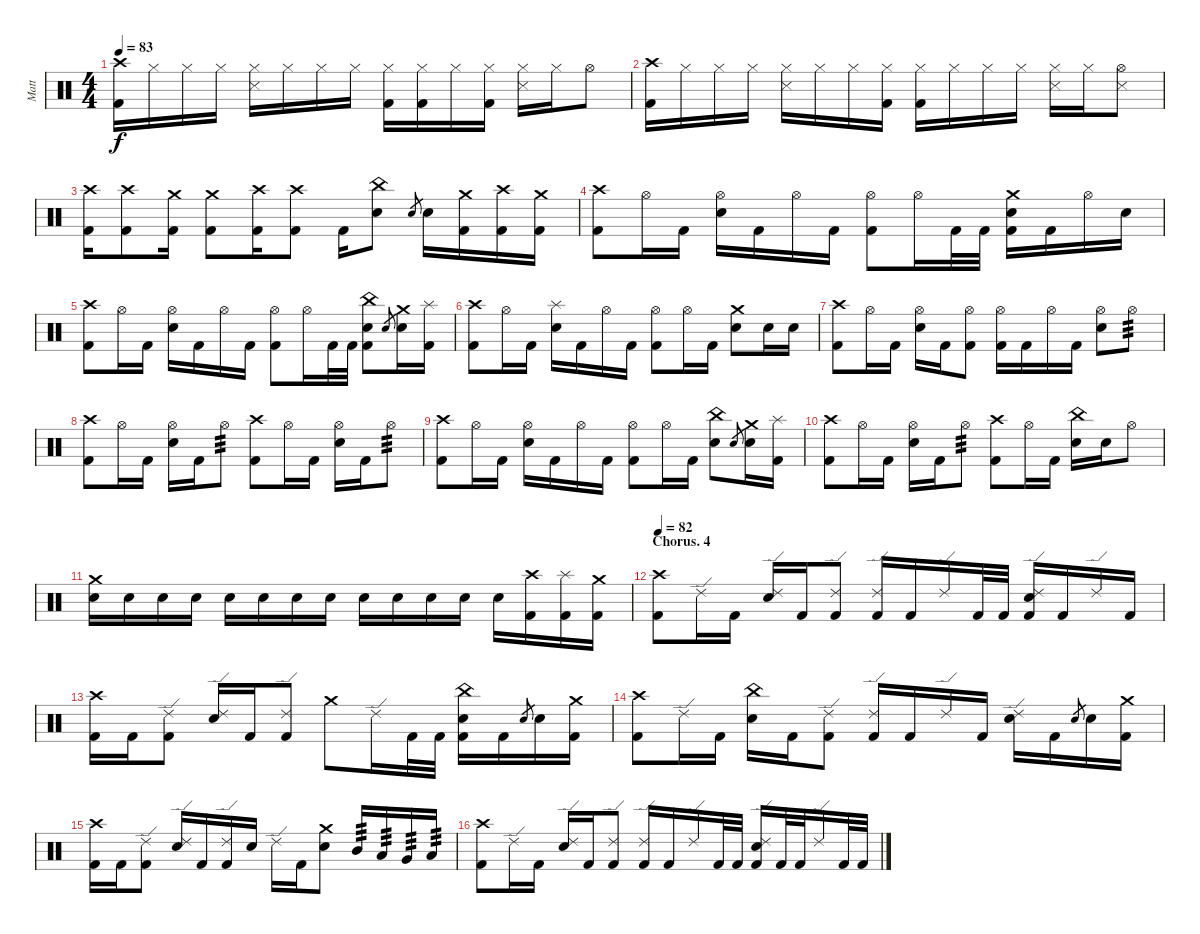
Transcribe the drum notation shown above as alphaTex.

\track ("Matt" "Matt") {instrument percussion}
\staff {score}
\articulation defaults
\ts (4 4)
\tempo 83
\clef neutral
\ks c
("Crash high (hit)" "Kick (hit) 2").16{dy f} "Hi-Hat (closed)".16 "Hi-Hat (closed)".16 "Hi-Hat (closed)".16 ("Hi-Hat (closed)" "Snare (side stick) 3").16 "Hi-Hat (closed)".16 "Hi-Hat (closed)".16 "Hi-Hat (closed)".16 ("Hi-Hat (closed)" "Kick (hit) 2").16 ("Hi-Hat (closed)" "Kick (hit) 2").16 "Hi-Hat (closed)".16 ("Hi-Hat (closed)" "Kick (hit) 2").16 ("Hi-Hat (closed)" "Snare (side stick) 3").16 "Hi-Hat (closed)".16 "Hi-Hat (open)".8 |
("Crash high (hit)" "Kick (hit) 2").16 "Hi-Hat (closed)".16 "Hi-Hat (closed)".16 "Hi-Hat (closed)".16 ("Hi-Hat (closed)" "Snare (side stick) 3").16 "Hi-Hat (closed)".16 "Hi-Hat (closed)".16 ("Hi-Hat (closed)" "Kick (hit) 2").16 ("Hi-Hat (closed)" "Kick (hit) 2").16 "Hi-Hat (closed)".16 "Hi-Hat (closed)".16 "Hi-Hat (closed)".16 ("Hi-Hat (closed)" "Snare (side stick) 3").16 "Hi-Hat (closed)".16 ("Hi-Hat (open)" "Snare (side stick) 3").8 |
("Crash high (hit)" "Kick (hit) 2").16 ("Crash high (hit)" "Kick (hit) 2").8 ("Crash medium (hit)" "Kick (hit) 2").16 ("Crash medium (hit)" "Kick (hit) 2").8 ("Crash high (hit)" "Kick (hit) 2").16 ("Crash high (hit)" "Kick (hit) 2").8 "Kick (hit) 2".16 ("China (hit)" "Electric Snare (hit)").8 "Electric Snare (hit)".8{gr} "Electric Snare (hit)".16 ("Crash medium (hit)" "Kick (hit) 2").16 ("Crash high (hit)" "Kick (hit) 2").16 ("Crash medium (hit)" "Kick (hit) 2").16 |
("Crash high (hit)" "Kick (hit) 2").8 "Hi-Hat (open)".16 "Kick (hit) 2".16 ("Hi-Hat (open)" "Electric Snare (hit)").16 "Kick (hit) 2".16 "Hi-Hat (open)".16 "Kick (hit) 2".16 ("Hi-Hat (open)" "Kick (hit) 2").8 "Hi-Hat (open)".16 "Kick (hit) 2".32 "Kick (hit) 2".32 ("Crash medium (hit)" "Electric Snare (hit)" "Kick (hit) 2").16 "Kick (hit) 2".16 "Hi-Hat (open)".16 "Electric Snare (hit)".16 |
("Crash high (hit)" "Kick (hit) 2").8 "Hi-Hat (open)".16 "Kick (hit) 2".16 ("Hi-Hat (open)" "Electric Snare (hit)").16 "Kick (hit) 2".16 "Hi-Hat (open)".16 "Kick (hit) 2".16 ("Hi-Hat (open)" "Kick (hit) 2").8 "Hi-Hat (open)".16 "Kick (hit) 2".32 "Kick (hit) 2".32 ("China (hit)" "Electric Snare (hit)" "Kick (hit) 2").8 "Electric Snare (hit)".8{gr} ("Crash medium (hit)" "Electric Snare (hit)").16 ("Splash (hit)" "Kick (hit) 2").16 |
("Crash high (hit)" "Kick (hit) 2").8 "Hi-Hat (open)".16 "Kick (hit) 2".16 ("Splash (hit)" "Electric Snare (hit)").16 "Kick (hit) 2".16 "Hi-Hat (open)".16 "Kick (hit) 2".16 ("Hi-Hat (open)" "Kick (hit) 2").8 "Hi-Hat (open)".16 "Kick (hit) 2".16 ("Crash medium (hit)" "Electric Snare (hit)").8 "Electric Snare (hit)".16 "Electric Snare (hit)".16 |
("Crash high (hit)" "Kick (hit) 2").8 "Hi-Hat (open)".16 "Kick (hit) 2".16 ("Hi-Hat (open)" "Electric Snare (hit)").16 "Kick (hit) 2".16 ("Hi-Hat (open)" "Kick (hit) 2").8 ("Hi-Hat (open)" "Kick (hit) 2").16 "Kick (hit) 2".16 "Hi-Hat (open)".16 "Kick (hit) 2".16 ("Hi-Hat (open)" "Electric Snare (hit)").8 "Hi-Hat (open)".8{tp 3} |
("Crash high (hit)" "Kick (hit) 2").8 "Hi-Hat (open)".16 "Kick (hit) 2".16 ("Hi-Hat (open)" "Electric Snare (hit)").16 "Kick (hit) 2".16 "Hi-Hat (open)".8{tp 3} ("Crash high (hit)" "Kick (hit) 2").8 "Hi-Hat (open)".16 "Kick (hit) 2".16 ("Hi-Hat (open)" "Electric Snare (hit)").16 "Kick (hit) 2".16 "Hi-Hat (open)".8{tp 3} |
("Crash high (hit)" "Kick (hit) 2").8 "Hi-Hat (open)".16 "Kick (hit) 2".16 ("Hi-Hat (open)" "Electric Snare (hit)").16 "Kick (hit) 2".16 "Hi-Hat (open)".16 "Kick (hit) 2".16 ("Hi-Hat (open)" "Kick (hit) 2").8 "Hi-Hat (open)".16 "Kick (hit) 2".16 ("China (hit)" "Electric Snare (hit)").8 "Electric Snare (hit)".8{gr} ("Crash medium (hit)" "Electric Snare (hit)").16 ("Splash (hit)" "Kick (hit) 2").16 |
("Crash high (hit)" "Kick (hit) 2").8 "Hi-Hat (open)".16 "Kick (hit) 2".16 ("Hi-Hat (open)" "Electric Snare (hit)").16 "Kick (hit) 2".16 "Hi-Hat (open)".8{tp 3} ("Crash high (hit)" "Kick (hit) 2").8 "Hi-Hat (open)".16 "Kick (hit) 2".16 ("China (hit)" "Electric Snare (hit)").16 "Electric Snare (hit)".16 "Hi-Hat (open)".8 |
("Crash medium (hit)" "Electric Snare (hit)").16 "Electric Snare (hit)".16 "Electric Snare (hit)".16 "Electric Snare (hit)".16 "Electric Snare (hit)".16 "Electric Snare (hit)".16 "Electric Snare (hit)".16 "Electric Snare (hit)".16 "Electric Snare (hit)".16 "Electric Snare (hit)".16 "Electric Snare (hit)".16 "Electric Snare (hit)".16 "Electric Snare (hit)".16 ("Crash high (hit)" "Kick (hit) 2").16 ("Splash (hit)" "Kick (hit) 2").16 ("Crash medium (hit)" "Kick (hit) 2").16 |
\section ("" "Chorus. 4")
\tempo 82
("Crash high (hit)" "Kick (hit) 2").8 "Ride (edge) 2".16 "Kick (hit) 2".16 ("Ride (edge) 2" "Electric Snare (hit)").16 "Kick (hit) 2".16 ("Ride (edge) 2" "Kick (hit) 2").8 ("Ride (edge) 2" "Kick (hit) 2").16 "Kick (hit) 2".16 "Ride (edge) 2".16 "Kick (hit) 2".32 "Kick (hit) 2".32 ("Ride (edge) 2" "Electric Snare (hit)" "Kick (hit) 2").16 "Kick (hit) 2".16 "Ride (edge) 2".16 "Kick (hit) 2".16 |
("Crash high (hit)" "Kick (hit) 2").16 "Kick (hit) 2".16 ("Ride (edge) 2" "Kick (hit) 2").8 ("Ride (edge) 2" "Electric Snare (hit)").16 "Kick (hit) 2".16 ("Ride (edge) 2" "Kick (hit) 2").8 "Crash medium (hit)".8 "Ride (edge) 2".16 "Kick (hit) 2".32 "Kick (hit) 2".32 ("China (hit)" "Electric Snare (hit)" "Kick (hit) 2").16 "Kick (hit) 2".16 "Electric Snare (hit)".8{gr} "Electric Snare (hit)".16 ("Crash medium (hit)" "Kick (hit) 2").16 |
("Crash high (hit)" "Kick (hit) 2").8 "Ride (edge) 2".16 "Kick (hit) 2".16 ("China (hit)" "Electric Snare (hit)").16 "Kick (hit) 2".16 ("Ride (edge) 2" "Kick (hit) 2").8 ("Ride (edge) 2" "Kick (hit) 2").16 "Kick (hit) 2".16 "Ride (edge) 2".16 "Kick (hit) 2".16 ("Ride (edge) 2" "Electric Snare (hit)").16 "Kick (hit) 2".16 "Electric Snare (hit)".8{gr} "Electric Snare (hit)".16 ("Crash medium (hit)" "Kick (hit) 2").16 |
("Crash high (hit)" "Kick (hit) 2").16 "Kick (hit) 2".16 ("Ride (edge) 2" "Kick (hit) 2").8 ("Ride (edge) 2" "Electric Snare (hit)").16 "Kick (hit) 2".16 ("Ride (edge) 2" "Kick (hit) 2").16 "Electric Snare (hit)".16 "Ride (edge) 2".16 "Kick (hit) 2".16 ("Crash medium (hit)" "Electric Snare (hit)").8 "Mid Tom (hit)".16{tp 3} "Low Tom (hit)".16{tp 3} "Very Low Tom (hit)".16{tp 3} "Low Floor Tom (hit)".16{tp 3} |
("Crash high (hit)" "Kick (hit) 2").8 "Ride (edge) 2".16 "Kick (hit) 2".16 ("Ride (edge) 2" "Electric Snare (hit)").16 "Kick (hit) 2".16 ("Ride (edge) 2" "Kick (hit) 2").8 ("Ride (edge) 2" "Kick (hit) 2").16 "Kick (hit) 2".16 "Ride (edge) 2".16 "Kick (hit) 2".32 "Kick (hit) 2".32 ("Ride (edge) 2" "Electric Snare (hit)" "Kick (hit) 2").16 "Kick (hit) 2".32 "Kick (hit) 2".32 "Ride (edge) 2".16 "Kick (hit) 2".32 "Kick (hit) 2".32
